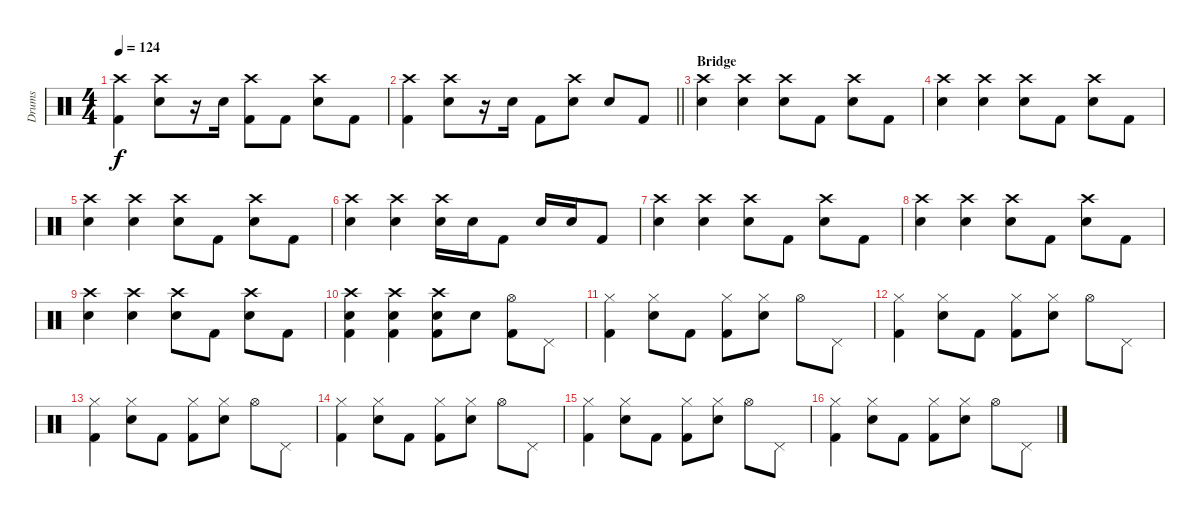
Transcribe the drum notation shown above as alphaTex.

\track ("Drums" "Drums") {instrument percussion}
\staff {score}
\articulation defaults
\ts (4 4)
\tempo 124
\clef neutral
\ks c
("Crash high (hit)" "Kick (hit) 2").4{dy f} ("Crash high (hit)" "Electric Snare (hit)").8 r.16 "Electric Snare (hit)".16 ("Crash high (hit)" "Kick (hit) 2").8 "Kick (hit) 2".8 ("Crash high (hit)" "Electric Snare (hit)").8 "Kick (hit) 2".8 |
\barLineRight lightlight
("Crash high (hit)" "Kick (hit) 2").4 ("Crash high (hit)" "Electric Snare (hit)").8 r.16 "Electric Snare (hit)".16 "Kick (hit) 2".8 ("Crash high (hit)" "Electric Snare (hit)").8 "Electric Snare (hit)".8 "Kick (hit) 2".8 |
\section ("" "Bridge")
("Crash high (hit)" "Electric Snare (hit)").4 ("Crash high (hit)" "Electric Snare (hit)").4 ("Crash high (hit)" "Electric Snare (hit)").8 "Kick (hit) 2".8 ("Crash high (hit)" "Electric Snare (hit)").8 "Kick (hit) 2".8 |
("Crash high (hit)" "Electric Snare (hit)").4 ("Crash high (hit)" "Electric Snare (hit)").4 ("Crash high (hit)" "Electric Snare (hit)").8 "Kick (hit) 2".8 ("Crash high (hit)" "Electric Snare (hit)").8 "Kick (hit) 2".8 |
("Crash high (hit)" "Electric Snare (hit)").4 ("Crash high (hit)" "Electric Snare (hit)").4 ("Crash high (hit)" "Electric Snare (hit)").8 "Kick (hit) 2".8 ("Crash high (hit)" "Electric Snare (hit)").8 "Kick (hit) 2".8 |
("Crash high (hit)" "Electric Snare (hit)").4 ("Crash high (hit)" "Electric Snare (hit)").4 ("Crash high (hit)" "Electric Snare (hit)").16 "Electric Snare (hit)".16 "Kick (hit) 2".8 "Electric Snare (hit)".16 "Electric Snare (hit)".16 "Kick (hit) 2".8 |
("Crash high (hit)" "Electric Snare (hit)").4 ("Crash high (hit)" "Electric Snare (hit)").4 ("Crash high (hit)" "Electric Snare (hit)").8 "Kick (hit) 2".8 ("Crash high (hit)" "Electric Snare (hit)").8 "Kick (hit) 2".8 |
("Crash high (hit)" "Electric Snare (hit)").4 ("Crash high (hit)" "Electric Snare (hit)").4 ("Crash high (hit)" "Electric Snare (hit)").8 "Kick (hit) 2".8 ("Crash high (hit)" "Electric Snare (hit)").8 "Kick (hit) 2".8 |
("Crash high (hit)" "Electric Snare (hit)").4 ("Crash high (hit)" "Electric Snare (hit)").4 ("Crash high (hit)" "Electric Snare (hit)").8 "Kick (hit) 2".8 ("Crash high (hit)" "Electric Snare (hit)").8 "Kick (hit) 2".8 |
("Crash high (hit)" "Electric Snare (hit)" "Kick (hit) 2").4 ("Crash high (hit)" "Electric Snare (hit)" "Kick (hit) 2").4 ("Crash high (hit)" "Electric Snare (hit)" "Kick (hit) 2").8 "Electric Snare (hit)".8 ("Hi-Hat (open)" "Kick (hit) 2").8 "Pedal Hi-Hat (hit)".8 |
("Hi-Hat (closed)" "Kick (hit) 2").4 ("Hi-Hat (closed)" "Electric Snare (hit)").8 "Kick (hit) 2".8 ("Hi-Hat (closed)" "Kick (hit) 2").8 ("Hi-Hat (closed)" "Electric Snare (hit)").8 "Hi-Hat (open)".8 "Pedal Hi-Hat (hit)".8 |
("Hi-Hat (closed)" "Kick (hit) 2").4 ("Hi-Hat (closed)" "Electric Snare (hit)").8 "Kick (hit) 2".8 ("Hi-Hat (closed)" "Kick (hit) 2").8 ("Hi-Hat (closed)" "Electric Snare (hit)").8 "Hi-Hat (open)".8 "Pedal Hi-Hat (hit)".8 |
("Hi-Hat (closed)" "Kick (hit) 2").4 ("Hi-Hat (closed)" "Electric Snare (hit)").8 "Kick (hit) 2".8 ("Hi-Hat (closed)" "Kick (hit) 2").8 ("Hi-Hat (closed)" "Electric Snare (hit)").8 "Hi-Hat (open)".8 "Pedal Hi-Hat (hit)".8 |
("Hi-Hat (closed)" "Kick (hit) 2").4 ("Hi-Hat (closed)" "Electric Snare (hit)").8 "Kick (hit) 2".8 ("Hi-Hat (closed)" "Kick (hit) 2").8 ("Hi-Hat (closed)" "Electric Snare (hit)").8 "Hi-Hat (open)".8 "Pedal Hi-Hat (hit)".8 |
("Hi-Hat (closed)" "Kick (hit) 2").4 ("Hi-Hat (closed)" "Electric Snare (hit)").8 "Kick (hit) 2".8 ("Hi-Hat (closed)" "Kick (hit) 2").8 ("Hi-Hat (closed)" "Electric Snare (hit)").8 "Hi-Hat (open)".8 "Pedal Hi-Hat (hit)".8 |
("Hi-Hat (closed)" "Kick (hit) 2").4 ("Hi-Hat (closed)" "Electric Snare (hit)").8 "Kick (hit) 2".8 ("Hi-Hat (closed)" "Kick (hit) 2").8 ("Hi-Hat (closed)" "Electric Snare (hit)").8 "Hi-Hat (open)".8 "Pedal Hi-Hat (hit)".8
